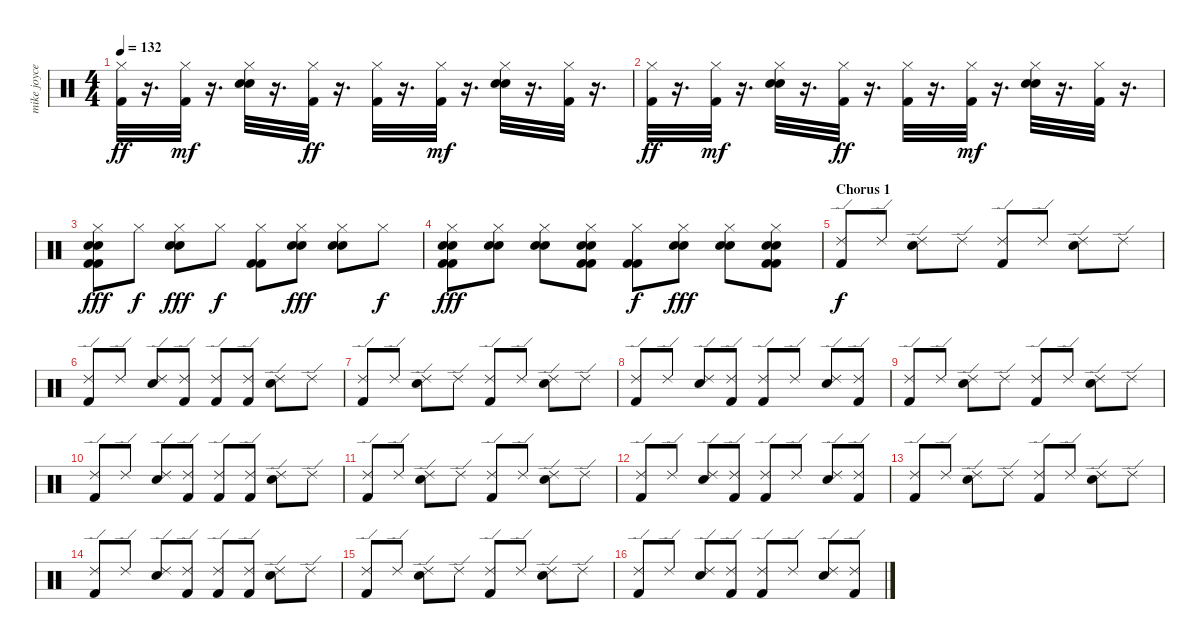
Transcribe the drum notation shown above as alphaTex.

\track ("mike joyce" "mike joyce") {instrument percussion}
\staff {score}
\articulation defaults
\ts (4 4)
\tempo 132
\clef neutral
\ks c
("Hi-Hat (closed)" "Kick (hit) 2").32{dy ff} r.16{d} ("Kick (hit) 2" "Hi-Hat (closed)").32{dy mf} r.16{d} ("Snare (hit) 2" "Electric Snare (hit)" "Hi-Hat (closed)").32 r.16{d} ("Hi-Hat (closed)" "Kick (hit) 2").32{dy ff} r.16{d} ("Hi-Hat (closed)" "Kick (hit) 2").32 r.16{d} ("Kick (hit) 2" "Hi-Hat (closed)").32{dy mf} r.16{d} ("Snare (hit) 2" "Electric Snare (hit)" "Hi-Hat (closed)").32 r.16{d} ("Kick (hit) 2" "Hi-Hat (closed)").32 r.16{d} |
("Hi-Hat (closed)" "Kick (hit) 2").32{dy ff} r.16{d} ("Kick (hit) 2" "Hi-Hat (closed)").32{dy mf} r.16{d} ("Snare (hit) 2" "Electric Snare (hit)" "Hi-Hat (closed)").32 r.16{d} ("Hi-Hat (closed)" "Kick (hit) 2").32{dy ff} r.16{d} ("Hi-Hat (closed)" "Kick (hit) 2").32 r.16{d} ("Kick (hit) 2" "Hi-Hat (closed)").32{dy mf} r.16{d} ("Snare (hit) 2" "Electric Snare (hit)" "Hi-Hat (closed)").32 r.16{d} ("Kick (hit) 2" "Hi-Hat (closed)").32 r.16{d} |
("Hi-Hat (closed)" "Electric Snare (hit)" "Snare (hit) 2" "Kick (hit) 2" "Kick (hit) 2").8{dy fff} "Hi-Hat (closed)".8{dy f} ("Hi-Hat (closed)" "Electric Snare (hit)" "Snare (hit) 2").8{dy fff} "Hi-Hat (closed)".8{dy f} ("Hi-Hat (closed)" "Kick (hit) 2" "Kick (hit) 2").8 ("Hi-Hat (closed)" "Electric Snare (hit)" "Snare (hit) 2").8{dy fff} ("Hi-Hat (closed)" "Electric Snare (hit)" "Snare (hit) 2").8 "Hi-Hat (closed)".8{dy f} |
("Hi-Hat (closed)" "Electric Snare (hit)" "Snare (hit) 2" "Kick (hit) 2" "Kick (hit) 2").8{dy fff} ("Hi-Hat (closed)" "Electric Snare (hit)" "Snare (hit) 2").8 ("Hi-Hat (closed)" "Electric Snare (hit)" "Snare (hit) 2").8 ("Hi-Hat (closed)" "Electric Snare (hit)" "Snare (hit) 2" "Kick (hit) 2" "Kick (hit) 2").8 ("Hi-Hat (closed)" "Kick (hit) 2" "Kick (hit) 2").8{dy f} ("Hi-Hat (closed)" "Electric Snare (hit)" "Snare (hit) 2").8{dy fff} ("Hi-Hat (closed)" "Electric Snare (hit)" "Snare (hit) 2").8 ("Hi-Hat (closed)" "Electric Snare (hit)" "Snare (hit) 2" "Kick (hit) 2" "Kick (hit) 2").8 |
\section ("" "Chorus 1")
("Ride (edge) 2" "Kick (hit) 2").8{dy f} "Ride (edge) 2".8 ("Ride (edge) 2" "Snare (hit) 2").8 "Ride (edge) 2".8 ("Ride (edge) 2" "Kick (hit) 2").8 "Ride (edge) 2".8 ("Ride (edge) 2" "Snare (hit) 2").8 "Ride (edge) 2".8 |
("Ride (edge) 2" "Kick (hit) 2").8 "Ride (edge) 2".8 ("Ride (edge) 2" "Snare (hit) 2").8 ("Ride (edge) 2" "Kick (hit) 2").8 ("Ride (edge) 2" "Kick (hit) 2").8 ("Ride (edge) 2" "Kick (hit) 2").8 ("Ride (edge) 2" "Snare (hit) 2").8 "Ride (edge) 2".8 |
("Ride (edge) 2" "Kick (hit) 2").8 "Ride (edge) 2".8 ("Ride (edge) 2" "Snare (hit) 2").8 "Ride (edge) 2".8 ("Ride (edge) 2" "Kick (hit) 2").8 "Ride (edge) 2".8 ("Ride (edge) 2" "Snare (hit) 2").8 "Ride (edge) 2".8 |
("Ride (edge) 2" "Kick (hit) 2").8 "Ride (edge) 2".8 ("Ride (edge) 2" "Snare (hit) 2").8 ("Ride (edge) 2" "Kick (hit) 2").8 ("Ride (edge) 2" "Kick (hit) 2").8 "Ride (edge) 2".8 ("Ride (edge) 2" "Snare (hit) 2").8 ("Ride (edge) 2" "Kick (hit) 2").8 |
("Ride (edge) 2" "Kick (hit) 2").8 "Ride (edge) 2".8 ("Ride (edge) 2" "Snare (hit) 2").8 "Ride (edge) 2".8 ("Ride (edge) 2" "Kick (hit) 2").8 "Ride (edge) 2".8 ("Ride (edge) 2" "Snare (hit) 2").8 "Ride (edge) 2".8 |
("Ride (edge) 2" "Kick (hit) 2").8 "Ride (edge) 2".8 ("Ride (edge) 2" "Snare (hit) 2").8 ("Ride (edge) 2" "Kick (hit) 2").8 ("Ride (edge) 2" "Kick (hit) 2").8 ("Ride (edge) 2" "Kick (hit) 2").8 ("Ride (edge) 2" "Snare (hit) 2").8 "Ride (edge) 2".8 |
("Ride (edge) 2" "Kick (hit) 2").8 "Ride (edge) 2".8 ("Ride (edge) 2" "Snare (hit) 2").8 "Ride (edge) 2".8 ("Ride (edge) 2" "Kick (hit) 2").8 "Ride (edge) 2".8 ("Ride (edge) 2" "Snare (hit) 2").8 "Ride (edge) 2".8 |
("Ride (edge) 2" "Kick (hit) 2").8 "Ride (edge) 2".8 ("Ride (edge) 2" "Snare (hit) 2").8 ("Ride (edge) 2" "Kick (hit) 2").8 ("Ride (edge) 2" "Kick (hit) 2").8 "Ride (edge) 2".8 ("Ride (edge) 2" "Snare (hit) 2").8 ("Ride (edge) 2" "Kick (hit) 2").8 |
("Ride (edge) 2" "Kick (hit) 2").8 "Ride (edge) 2".8 ("Ride (edge) 2" "Snare (hit) 2").8 "Ride (edge) 2".8 ("Ride (edge) 2" "Kick (hit) 2").8 "Ride (edge) 2".8 ("Ride (edge) 2" "Snare (hit) 2").8 "Ride (edge) 2".8 |
("Ride (edge) 2" "Kick (hit) 2").8 "Ride (edge) 2".8 ("Ride (edge) 2" "Snare (hit) 2").8 ("Ride (edge) 2" "Kick (hit) 2").8 ("Ride (edge) 2" "Kick (hit) 2").8 ("Ride (edge) 2" "Kick (hit) 2").8 ("Ride (edge) 2" "Snare (hit) 2").8 "Ride (edge) 2".8 |
("Ride (edge) 2" "Kick (hit) 2").8 "Ride (edge) 2".8 ("Ride (edge) 2" "Snare (hit) 2").8 "Ride (edge) 2".8 ("Ride (edge) 2" "Kick (hit) 2").8 "Ride (edge) 2".8 ("Ride (edge) 2" "Snare (hit) 2").8 "Ride (edge) 2".8 |
("Ride (edge) 2" "Kick (hit) 2").8 "Ride (edge) 2".8 ("Ride (edge) 2" "Snare (hit) 2").8 ("Ride (edge) 2" "Kick (hit) 2").8 ("Ride (edge) 2" "Kick (hit) 2").8 "Ride (edge) 2".8 ("Ride (edge) 2" "Snare (hit) 2").8 ("Ride (edge) 2" "Kick (hit) 2").8
